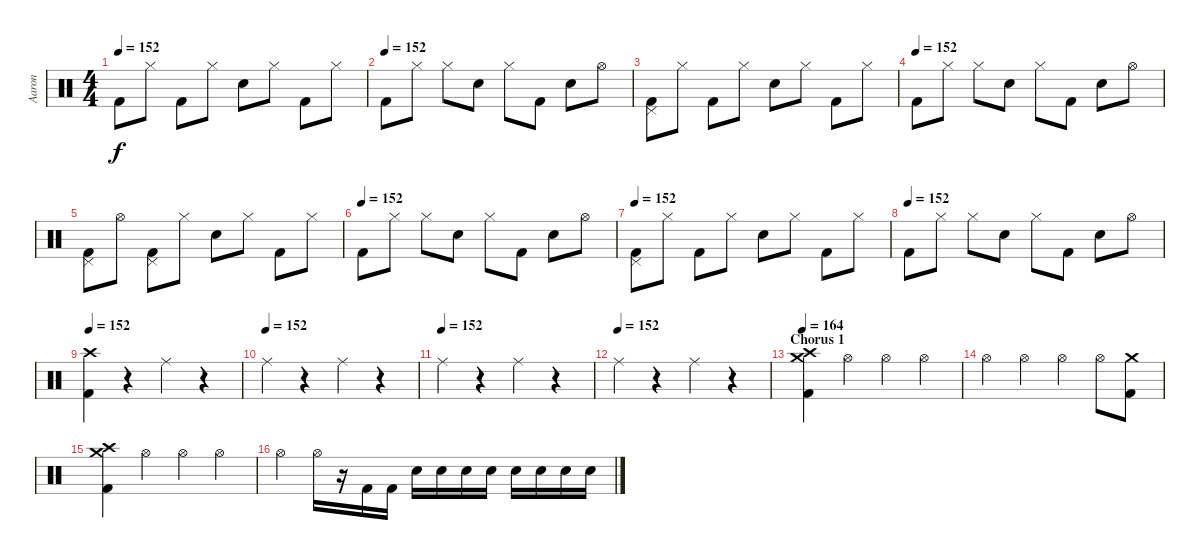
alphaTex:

\track ("Aaron" "Aaron") {instrument percussion}
\staff {score}
\articulation defaults
\ts (4 4)
\tempo 152
\clef neutral
\ks c "Kick (hit) 2".8{dy f} "Hi-Hat (closed)".8 "Kick (hit) 2".8 "Hi-Hat (closed)".8 "Snare (hit) 2".8 "Hi-Hat (closed)".8 "Kick (hit) 2".8 "Hi-Hat (closed)".8
|
\tempo (152)
"Kick (hit) 2".8 "Hi-Hat (closed)".8 "Hi-Hat (closed)".8 "Snare (hit) 2".8 "Hi-Hat (closed)".8 "Kick (hit) 2".8 "Snare (hit) 2".8 "Hi-Hat (open)".8 |
("Pedal Hi-Hat (hit)" "Kick (hit) 2").8 "Hi-Hat (closed)".8 "Kick (hit) 2".8 "Hi-Hat (closed)".8 "Snare (hit) 2".8 "Hi-Hat (closed)".8 "Kick (hit) 2".8 "Hi-Hat (closed)".8 |
\tempo (152)
"Kick (hit) 2".8 "Hi-Hat (closed)".8 "Hi-Hat (closed)".8 "Snare (hit) 2".8 "Hi-Hat (closed)".8 "Kick (hit) 2".8 "Snare (hit) 2".8 "Hi-Hat (open)".8 |
("Pedal Hi-Hat (hit)" "Kick (hit) 2").8 "Hi-Hat (open)".8 ("Pedal Hi-Hat (hit)" "Kick (hit) 2").8 "Hi-Hat (closed)".8 "Snare (hit) 2".8 "Hi-Hat (closed)".8 "Kick (hit) 2".8 "Hi-Hat (closed)".8 |
\tempo (152)
"Kick (hit) 2".8 "Hi-Hat (closed)".8 "Hi-Hat (closed)".8 "Snare (hit) 2".8 "Hi-Hat (closed)".8 "Kick (hit) 2".8 "Snare (hit) 2".8 "Hi-Hat (open)".8 |
\tempo 152
("Pedal Hi-Hat (hit)" "Kick (hit) 2").8 "Hi-Hat (closed)".8 "Kick (hit) 2".8 "Hi-Hat (closed)".8 "Snare (hit) 2".8 "Hi-Hat (closed)".8 "Kick (hit) 2".8 "Hi-Hat (closed)".8 |
\tempo (152)
"Kick (hit) 2".8 "Hi-Hat (closed)".8 "Hi-Hat (closed)".8 "Snare (hit) 2".8 "Hi-Hat (closed)".8 "Kick (hit) 2".8 "Snare (hit) 2".8 "Hi-Hat (open)".8 |
\tempo 152
("Crash high (hit)" "Kick (hit) 2").4 r.4 "Ride (middle)".4 r.4 |
\tempo (152)
"Ride (middle)".4 r.4 "Ride (middle)".4 r.4 |
\tempo (152)
"Ride (middle)".4 r.4 "Ride (middle)".4 r.4 |
\tempo (152)
"Ride (middle)".4 r.4 "Ride (middle)".4 r.4 |
\section ("" "Chorus 1")
\tempo 164
("Crash high (hit)" "Crash medium (hit)" "Kick (hit) 2").4 "Hi-Hat (open)".4 "Hi-Hat (open)".4 "Hi-Hat (open)".4 |
"Hi-Hat (open)".4 "Hi-Hat (open)".4 "Hi-Hat (open)".4 "Hi-Hat (open)".8 ("Crash medium (hit)" "Kick (hit) 2").8 |
("Crash high (hit)" "Crash medium (hit)" "Kick (hit) 2").4 "Hi-Hat (open)".4 "Hi-Hat (open)".4 "Hi-Hat (open)".4 |
"Hi-Hat (open)".4 "Hi-Hat (open)".16 r.16 "Kick (hit) 2".16 "Kick (hit) 2".16 "Snare (hit) 2".16 "Snare (hit) 2".16 "Snare (hit) 2".16 "Snare (hit) 2".16 "Snare (hit) 2".16 "Snare (hit) 2".16 "Snare (hit) 2".16 "Snare (hit) 2".16
